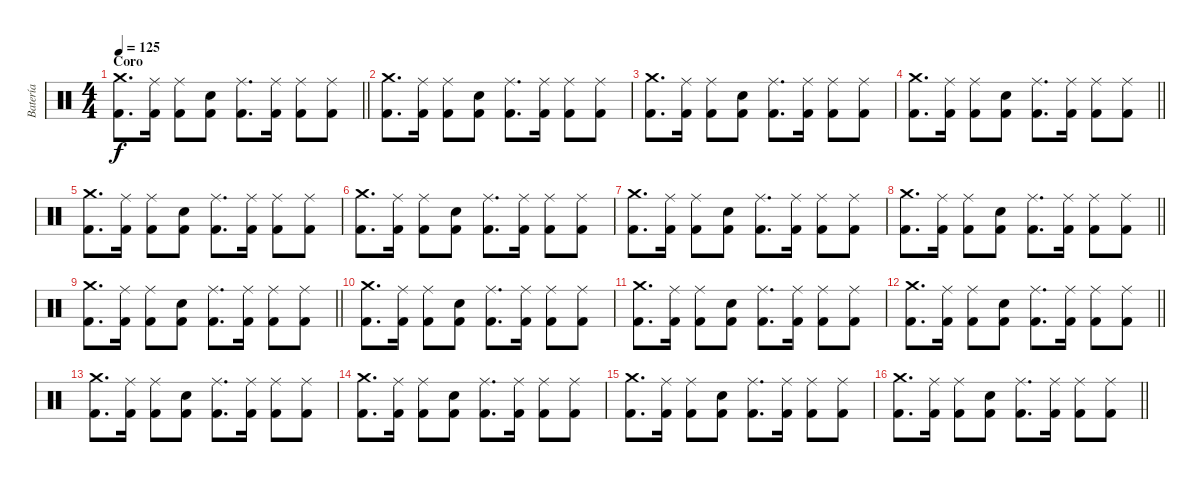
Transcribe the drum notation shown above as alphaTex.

\track ("Batería" "Batería") {instrument percussion}
\staff {score}
\articulation defaults
\ts (4 4)
\section ("" "Coro")
\tempo 125
\clef neutral
\barLineRight lightlight
\ks c
("Crash medium (hit)" "Kick (hit) 2").8{d dy f} ("Ride (middle)" "Kick (hit) 2").16 ("Ride (middle)" "Kick (hit) 2").8 ("Electric Snare (hit)" "Kick (hit) 2").8 ("Ride (middle)" "Kick (hit) 2").8{d} ("Ride (middle)" "Kick (hit) 2").16 ("Ride (middle)" "Kick (hit) 2").8 ("Ride (middle)" "Kick (hit) 2").8 |
("Crash medium (hit)" "Kick (hit) 2").8{d} ("Ride (middle)" "Kick (hit) 2").16 ("Ride (middle)" "Kick (hit) 2").8 ("Electric Snare (hit)" "Kick (hit) 2").8 ("Ride (middle)" "Kick (hit) 2").8{d} ("Ride (middle)" "Kick (hit) 2").16 ("Ride (middle)" "Kick (hit) 2").8 ("Ride (middle)" "Kick (hit) 2").8 |
("Crash medium (hit)" "Kick (hit) 2").8{d} ("Ride (middle)" "Kick (hit) 2").16 ("Ride (middle)" "Kick (hit) 2").8 ("Electric Snare (hit)" "Kick (hit) 2").8 ("Ride (middle)" "Kick (hit) 2").8{d} ("Ride (middle)" "Kick (hit) 2").16 ("Ride (middle)" "Kick (hit) 2").8 ("Ride (middle)" "Kick (hit) 2").8 |
\barLineRight lightlight
("Crash medium (hit)" "Kick (hit) 2").8{d} ("Ride (middle)" "Kick (hit) 2").16 ("Ride (middle)" "Kick (hit) 2").8 ("Electric Snare (hit)" "Kick (hit) 2").8 ("Ride (middle)" "Kick (hit) 2").8{d} ("Ride (middle)" "Kick (hit) 2").16 ("Ride (middle)" "Kick (hit) 2").8 ("Ride (middle)" "Kick (hit) 2").8 |
("Crash medium (hit)" "Kick (hit) 2").8{d} ("Ride (middle)" "Kick (hit) 2").16 ("Ride (middle)" "Kick (hit) 2").8 ("Electric Snare (hit)" "Kick (hit) 2").8 ("Ride (middle)" "Kick (hit) 2").8{d} ("Ride (middle)" "Kick (hit) 2").16 ("Ride (middle)" "Kick (hit) 2").8 ("Ride (middle)" "Kick (hit) 2").8 |
("Crash medium (hit)" "Kick (hit) 2").8{d} ("Ride (middle)" "Kick (hit) 2").16 ("Ride (middle)" "Kick (hit) 2").8 ("Electric Snare (hit)" "Kick (hit) 2").8 ("Ride (middle)" "Kick (hit) 2").8{d} ("Ride (middle)" "Kick (hit) 2").16 ("Ride (middle)" "Kick (hit) 2").8 ("Ride (middle)" "Kick (hit) 2").8 |
("Crash medium (hit)" "Kick (hit) 2").8{d} ("Ride (middle)" "Kick (hit) 2").16 ("Ride (middle)" "Kick (hit) 2").8 ("Electric Snare (hit)" "Kick (hit) 2").8 ("Ride (middle)" "Kick (hit) 2").8{d} ("Ride (middle)" "Kick (hit) 2").16 ("Ride (middle)" "Kick (hit) 2").8 ("Ride (middle)" "Kick (hit) 2").8 |
\barLineRight lightlight
("Crash medium (hit)" "Kick (hit) 2").8{d} ("Ride (middle)" "Kick (hit) 2").16 ("Ride (middle)" "Kick (hit) 2").8 ("Electric Snare (hit)" "Kick (hit) 2").8 ("Ride (middle)" "Kick (hit) 2").8{d} ("Ride (middle)" "Kick (hit) 2").16 ("Ride (middle)" "Kick (hit) 2").8 ("Ride (middle)" "Kick (hit) 2").8 |
\barLineRight lightlight
("Crash medium (hit)" "Kick (hit) 2").8{d} ("Ride (middle)" "Kick (hit) 2").16 ("Ride (middle)" "Kick (hit) 2").8 ("Electric Snare (hit)" "Kick (hit) 2").8 ("Ride (middle)" "Kick (hit) 2").8{d} ("Ride (middle)" "Kick (hit) 2").16 ("Ride (middle)" "Kick (hit) 2").8 ("Ride (middle)" "Kick (hit) 2").8 |
("Crash medium (hit)" "Kick (hit) 2").8{d} ("Ride (middle)" "Kick (hit) 2").16 ("Ride (middle)" "Kick (hit) 2").8 ("Electric Snare (hit)" "Kick (hit) 2").8 ("Ride (middle)" "Kick (hit) 2").8{d} ("Ride (middle)" "Kick (hit) 2").16 ("Ride (middle)" "Kick (hit) 2").8 ("Ride (middle)" "Kick (hit) 2").8 |
("Crash medium (hit)" "Kick (hit) 2").8{d} ("Ride (middle)" "Kick (hit) 2").16 ("Ride (middle)" "Kick (hit) 2").8 ("Electric Snare (hit)" "Kick (hit) 2").8 ("Ride (middle)" "Kick (hit) 2").8{d} ("Ride (middle)" "Kick (hit) 2").16 ("Ride (middle)" "Kick (hit) 2").8 ("Ride (middle)" "Kick (hit) 2").8 |
\barLineRight lightlight
("Crash medium (hit)" "Kick (hit) 2").8{d} ("Ride (middle)" "Kick (hit) 2").16 ("Ride (middle)" "Kick (hit) 2").8 ("Electric Snare (hit)" "Kick (hit) 2").8 ("Ride (middle)" "Kick (hit) 2").8{d} ("Ride (middle)" "Kick (hit) 2").16 ("Ride (middle)" "Kick (hit) 2").8 ("Ride (middle)" "Kick (hit) 2").8 |
("Crash medium (hit)" "Kick (hit) 2").8{d} ("Ride (middle)" "Kick (hit) 2").16 ("Ride (middle)" "Kick (hit) 2").8 ("Electric Snare (hit)" "Kick (hit) 2").8 ("Ride (middle)" "Kick (hit) 2").8{d} ("Ride (middle)" "Kick (hit) 2").16 ("Ride (middle)" "Kick (hit) 2").8 ("Ride (middle)" "Kick (hit) 2").8 |
("Crash medium (hit)" "Kick (hit) 2").8{d} ("Ride (middle)" "Kick (hit) 2").16 ("Ride (middle)" "Kick (hit) 2").8 ("Electric Snare (hit)" "Kick (hit) 2").8 ("Ride (middle)" "Kick (hit) 2").8{d} ("Ride (middle)" "Kick (hit) 2").16 ("Ride (middle)" "Kick (hit) 2").8 ("Ride (middle)" "Kick (hit) 2").8 |
("Crash medium (hit)" "Kick (hit) 2").8{d} ("Ride (middle)" "Kick (hit) 2").16 ("Ride (middle)" "Kick (hit) 2").8 ("Electric Snare (hit)" "Kick (hit) 2").8 ("Ride (middle)" "Kick (hit) 2").8{d} ("Ride (middle)" "Kick (hit) 2").16 ("Ride (middle)" "Kick (hit) 2").8 ("Ride (middle)" "Kick (hit) 2").8 |
\barLineRight lightlight
("Crash medium (hit)" "Kick (hit) 2").8{d} ("Ride (middle)" "Kick (hit) 2").16 ("Ride (middle)" "Kick (hit) 2").8 ("Electric Snare (hit)" "Kick (hit) 2").8 ("Ride (middle)" "Kick (hit) 2").8{d} ("Ride (middle)" "Kick (hit) 2").16 ("Ride (middle)" "Kick (hit) 2").8 ("Ride (middle)" "Kick (hit) 2").8
